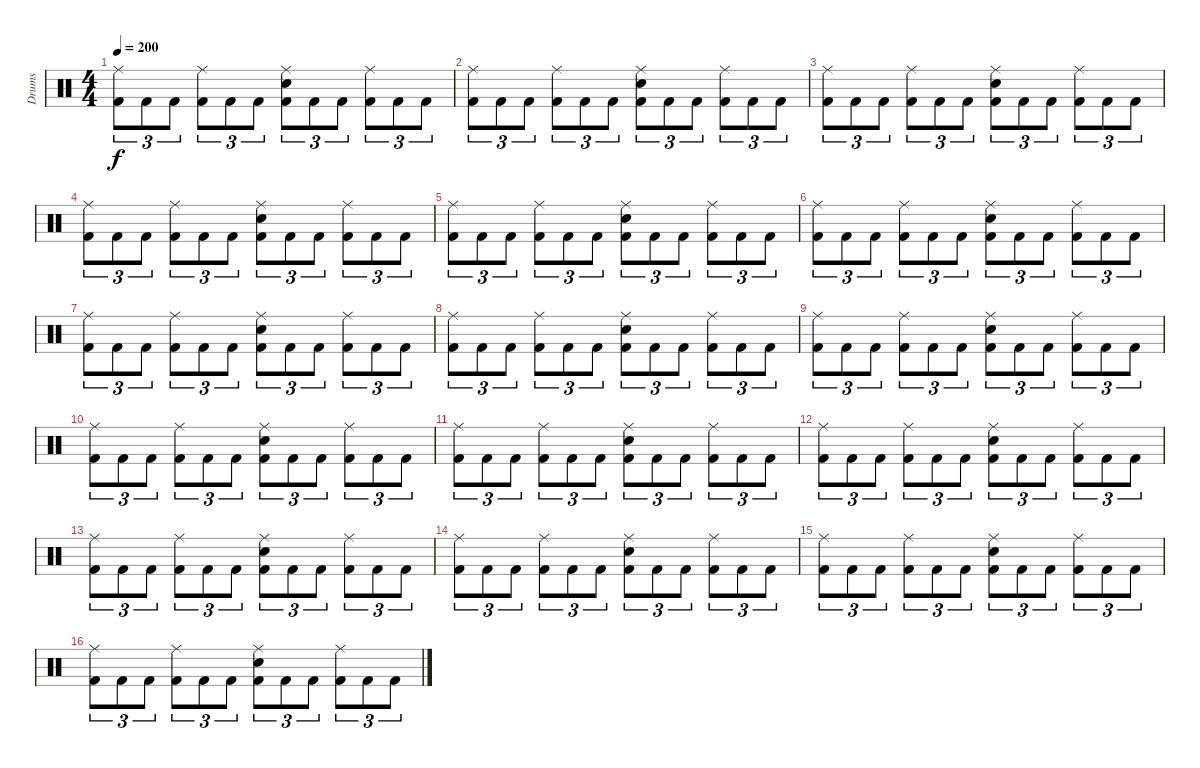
\track ("Drums" "Drums") {instrument percussion}
\staff {score}
\articulation defaults
\ts (4 4)
\tempo 200
\clef neutral
\ks c
("Ride (middle)" "Kick (hit) 2").8{tu (3 2) dy f} "Kick (hit) 2".8{tu (3 2)} "Kick (hit) 2".8{tu (3 2)} ("Ride (middle)" "Kick (hit) 2").8{tu (3 2)} "Kick (hit) 2".8{tu (3 2)} "Kick (hit) 2".8{tu (3 2)} ("Ride (middle)" "Electric Snare (hit)" "Kick (hit) 2").8{tu (3 2)} "Kick (hit) 2".8{tu (3 2)} "Kick (hit) 2".8{tu (3 2)} ("Ride (middle)" "Kick (hit) 2").8{tu (3 2)} "Kick (hit) 2".8{tu (3 2)} "Kick (hit) 2".8{tu (3 2)} |
("Ride (middle)" "Kick (hit) 2").8{tu (3 2)} "Kick (hit) 2".8{tu (3 2)} "Kick (hit) 2".8{tu (3 2)} ("Ride (middle)" "Kick (hit) 2").8{tu (3 2)} "Kick (hit) 2".8{tu (3 2)} "Kick (hit) 2".8{tu (3 2)} ("Ride (middle)" "Electric Snare (hit)" "Kick (hit) 2").8{tu (3 2)} "Kick (hit) 2".8{tu (3 2)} "Kick (hit) 2".8{tu (3 2)} ("Ride (middle)" "Kick (hit) 2").8{tu (3 2)} "Kick (hit) 2".8{tu (3 2)} "Kick (hit) 2".8{tu (3 2)} |
("Ride (middle)" "Kick (hit) 2").8{tu (3 2)} "Kick (hit) 2".8{tu (3 2)} "Kick (hit) 2".8{tu (3 2)} ("Ride (middle)" "Kick (hit) 2").8{tu (3 2)} "Kick (hit) 2".8{tu (3 2)} "Kick (hit) 2".8{tu (3 2)} ("Ride (middle)" "Electric Snare (hit)" "Kick (hit) 2").8{tu (3 2)} "Kick (hit) 2".8{tu (3 2)} "Kick (hit) 2".8{tu (3 2)} ("Ride (middle)" "Kick (hit) 2").8{tu (3 2)} "Kick (hit) 2".8{tu (3 2)} "Kick (hit) 2".8{tu (3 2)} |
("Ride (middle)" "Kick (hit) 2").8{tu (3 2)} "Kick (hit) 2".8{tu (3 2)} "Kick (hit) 2".8{tu (3 2)} ("Ride (middle)" "Kick (hit) 2").8{tu (3 2)} "Kick (hit) 2".8{tu (3 2)} "Kick (hit) 2".8{tu (3 2)} ("Ride (middle)" "Electric Snare (hit)" "Kick (hit) 2").8{tu (3 2)} "Kick (hit) 2".8{tu (3 2)} "Kick (hit) 2".8{tu (3 2)} ("Ride (middle)" "Kick (hit) 2").8{tu (3 2)} "Kick (hit) 2".8{tu (3 2)} "Kick (hit) 2".8{tu (3 2)} |
("Ride (middle)" "Kick (hit) 2").8{tu (3 2)} "Kick (hit) 2".8{tu (3 2)} "Kick (hit) 2".8{tu (3 2)} ("Ride (middle)" "Kick (hit) 2").8{tu (3 2)} "Kick (hit) 2".8{tu (3 2)} "Kick (hit) 2".8{tu (3 2)} ("Ride (middle)" "Electric Snare (hit)" "Kick (hit) 2").8{tu (3 2)} "Kick (hit) 2".8{tu (3 2)} "Kick (hit) 2".8{tu (3 2)} ("Ride (middle)" "Kick (hit) 2").8{tu (3 2)} "Kick (hit) 2".8{tu (3 2)} "Kick (hit) 2".8{tu (3 2)} |
("Ride (middle)" "Kick (hit) 2").8{tu (3 2)} "Kick (hit) 2".8{tu (3 2)} "Kick (hit) 2".8{tu (3 2)} ("Ride (middle)" "Kick (hit) 2").8{tu (3 2)} "Kick (hit) 2".8{tu (3 2)} "Kick (hit) 2".8{tu (3 2)} ("Ride (middle)" "Electric Snare (hit)" "Kick (hit) 2").8{tu (3 2)} "Kick (hit) 2".8{tu (3 2)} "Kick (hit) 2".8{tu (3 2)} ("Ride (middle)" "Kick (hit) 2").8{tu (3 2)} "Kick (hit) 2".8{tu (3 2)} "Kick (hit) 2".8{tu (3 2)} |
("Ride (middle)" "Kick (hit) 2").8{tu (3 2)} "Kick (hit) 2".8{tu (3 2)} "Kick (hit) 2".8{tu (3 2)} ("Ride (middle)" "Kick (hit) 2").8{tu (3 2)} "Kick (hit) 2".8{tu (3 2)} "Kick (hit) 2".8{tu (3 2)} ("Ride (middle)" "Electric Snare (hit)" "Kick (hit) 2").8{tu (3 2)} "Kick (hit) 2".8{tu (3 2)} "Kick (hit) 2".8{tu (3 2)} ("Ride (middle)" "Kick (hit) 2").8{tu (3 2)} "Kick (hit) 2".8{tu (3 2)} "Kick (hit) 2".8{tu (3 2)} |
("Ride (middle)" "Kick (hit) 2").8{tu (3 2)} "Kick (hit) 2".8{tu (3 2)} "Kick (hit) 2".8{tu (3 2)} ("Ride (middle)" "Kick (hit) 2").8{tu (3 2)} "Kick (hit) 2".8{tu (3 2)} "Kick (hit) 2".8{tu (3 2)} ("Ride (middle)" "Electric Snare (hit)" "Kick (hit) 2").8{tu (3 2)} "Kick (hit) 2".8{tu (3 2)} "Kick (hit) 2".8{tu (3 2)} ("Ride (middle)" "Kick (hit) 2").8{tu (3 2)} "Kick (hit) 2".8{tu (3 2)} "Kick (hit) 2".8{tu (3 2)} |
("Ride (middle)" "Kick (hit) 2").8{tu (3 2)} "Kick (hit) 2".8{tu (3 2)} "Kick (hit) 2".8{tu (3 2)} ("Ride (middle)" "Kick (hit) 2").8{tu (3 2)} "Kick (hit) 2".8{tu (3 2)} "Kick (hit) 2".8{tu (3 2)} ("Ride (middle)" "Electric Snare (hit)" "Kick (hit) 2").8{tu (3 2)} "Kick (hit) 2".8{tu (3 2)} "Kick (hit) 2".8{tu (3 2)} ("Ride (middle)" "Kick (hit) 2").8{tu (3 2)} "Kick (hit) 2".8{tu (3 2)} "Kick (hit) 2".8{tu (3 2)} |
("Ride (middle)" "Kick (hit) 2").8{tu (3 2)} "Kick (hit) 2".8{tu (3 2)} "Kick (hit) 2".8{tu (3 2)} ("Ride (middle)" "Kick (hit) 2").8{tu (3 2)} "Kick (hit) 2".8{tu (3 2)} "Kick (hit) 2".8{tu (3 2)} ("Ride (middle)" "Electric Snare (hit)" "Kick (hit) 2").8{tu (3 2)} "Kick (hit) 2".8{tu (3 2)} "Kick (hit) 2".8{tu (3 2)} ("Ride (middle)" "Kick (hit) 2").8{tu (3 2)} "Kick (hit) 2".8{tu (3 2)} "Kick (hit) 2".8{tu (3 2)} |
("Ride (middle)" "Kick (hit) 2").8{tu (3 2)} "Kick (hit) 2".8{tu (3 2)} "Kick (hit) 2".8{tu (3 2)} ("Ride (middle)" "Kick (hit) 2").8{tu (3 2)} "Kick (hit) 2".8{tu (3 2)} "Kick (hit) 2".8{tu (3 2)} ("Ride (middle)" "Electric Snare (hit)" "Kick (hit) 2").8{tu (3 2)} "Kick (hit) 2".8{tu (3 2)} "Kick (hit) 2".8{tu (3 2)} ("Ride (middle)" "Kick (hit) 2").8{tu (3 2)} "Kick (hit) 2".8{tu (3 2)} "Kick (hit) 2".8{tu (3 2)} |
("Ride (middle)" "Kick (hit) 2").8{tu (3 2)} "Kick (hit) 2".8{tu (3 2)} "Kick (hit) 2".8{tu (3 2)} ("Ride (middle)" "Kick (hit) 2").8{tu (3 2)} "Kick (hit) 2".8{tu (3 2)} "Kick (hit) 2".8{tu (3 2)} ("Ride (middle)" "Electric Snare (hit)" "Kick (hit) 2").8{tu (3 2)} "Kick (hit) 2".8{tu (3 2)} "Kick (hit) 2".8{tu (3 2)} ("Ride (middle)" "Kick (hit) 2").8{tu (3 2)} "Kick (hit) 2".8{tu (3 2)} "Kick (hit) 2".8{tu (3 2)} |
("Ride (middle)" "Kick (hit) 2").8{tu (3 2)} "Kick (hit) 2".8{tu (3 2)} "Kick (hit) 2".8{tu (3 2)} ("Ride (middle)" "Kick (hit) 2").8{tu (3 2)} "Kick (hit) 2".8{tu (3 2)} "Kick (hit) 2".8{tu (3 2)} ("Ride (middle)" "Electric Snare (hit)" "Kick (hit) 2").8{tu (3 2)} "Kick (hit) 2".8{tu (3 2)} "Kick (hit) 2".8{tu (3 2)} ("Ride (middle)" "Kick (hit) 2").8{tu (3 2)} "Kick (hit) 2".8{tu (3 2)} "Kick (hit) 2".8{tu (3 2)} |
("Ride (middle)" "Kick (hit) 2").8{tu (3 2)} "Kick (hit) 2".8{tu (3 2)} "Kick (hit) 2".8{tu (3 2)} ("Ride (middle)" "Kick (hit) 2").8{tu (3 2)} "Kick (hit) 2".8{tu (3 2)} "Kick (hit) 2".8{tu (3 2)} ("Ride (middle)" "Electric Snare (hit)" "Kick (hit) 2").8{tu (3 2)} "Kick (hit) 2".8{tu (3 2)} "Kick (hit) 2".8{tu (3 2)} ("Ride (middle)" "Kick (hit) 2").8{tu (3 2)} "Kick (hit) 2".8{tu (3 2)} "Kick (hit) 2".8{tu (3 2)} |
("Ride (middle)" "Kick (hit) 2").8{tu (3 2)} "Kick (hit) 2".8{tu (3 2)} "Kick (hit) 2".8{tu (3 2)} ("Ride (middle)" "Kick (hit) 2").8{tu (3 2)} "Kick (hit) 2".8{tu (3 2)} "Kick (hit) 2".8{tu (3 2)} ("Ride (middle)" "Electric Snare (hit)" "Kick (hit) 2").8{tu (3 2)} "Kick (hit) 2".8{tu (3 2)} "Kick (hit) 2".8{tu (3 2)} ("Ride (middle)" "Kick (hit) 2").8{tu (3 2)} "Kick (hit) 2".8{tu (3 2)} "Kick (hit) 2".8{tu (3 2)} |
("Ride (middle)" "Kick (hit) 2").8{tu (3 2)} "Kick (hit) 2".8{tu (3 2)} "Kick (hit) 2".8{tu (3 2)} ("Ride (middle)" "Kick (hit) 2").8{tu (3 2)} "Kick (hit) 2".8{tu (3 2)} "Kick (hit) 2".8{tu (3 2)} ("Ride (middle)" "Electric Snare (hit)" "Kick (hit) 2").8{tu (3 2)} "Kick (hit) 2".8{tu (3 2)} "Kick (hit) 2".8{tu (3 2)} ("Ride (middle)" "Kick (hit) 2").8{tu (3 2)} "Kick (hit) 2".8{tu (3 2)} "Kick (hit) 2".8{tu (3 2)}
